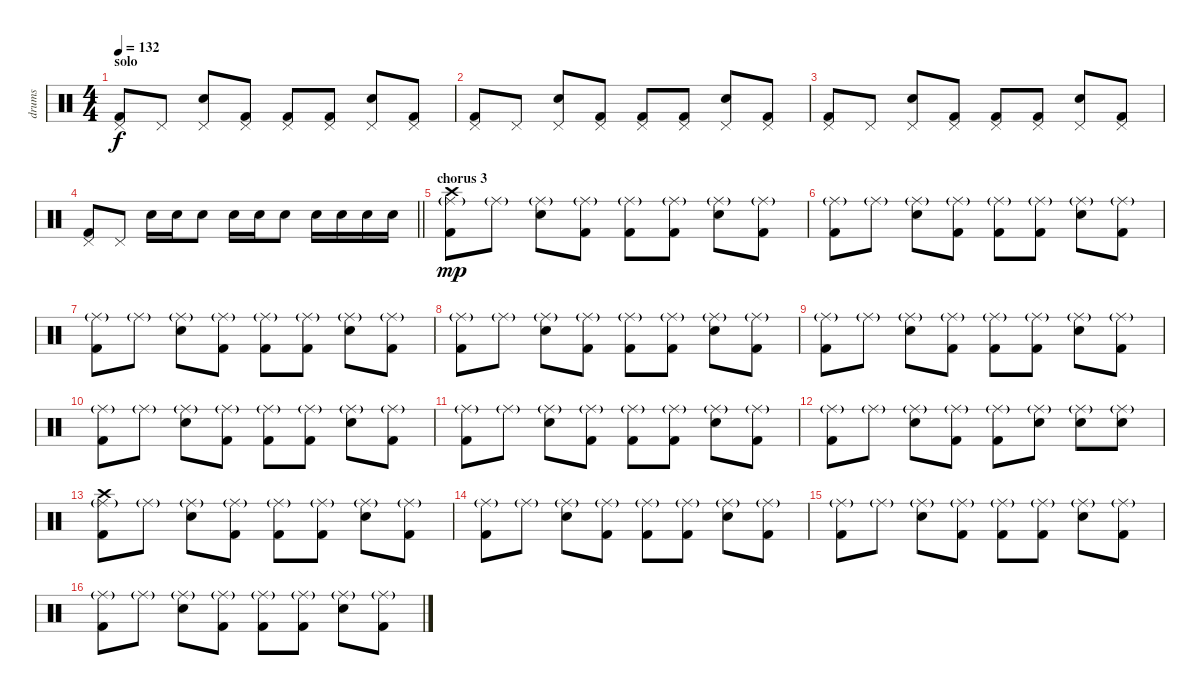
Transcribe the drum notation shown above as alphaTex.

\track ("drums" "drums") {instrument percussion}
\staff {score}
\articulation defaults
\ts (4 4)
\section ("" "solo")
\tempo 132
\clef neutral
\ks c
("Kick (hit) 2" "Pedal Hi-Hat (hit)").8{dy f} "Pedal Hi-Hat (hit)".8 ("Electric Snare (hit)" "Pedal Hi-Hat (hit)").8 ("Kick (hit) 2" "Pedal Hi-Hat (hit)").8 ("Kick (hit) 2" "Pedal Hi-Hat (hit)").8 ("Kick (hit) 2" "Pedal Hi-Hat (hit)").8 ("Electric Snare (hit)" "Pedal Hi-Hat (hit)").8 ("Kick (hit) 2" "Pedal Hi-Hat (hit)").8 |
("Kick (hit) 2" "Pedal Hi-Hat (hit)").8 "Pedal Hi-Hat (hit)".8 ("Electric Snare (hit)" "Pedal Hi-Hat (hit)").8 ("Kick (hit) 2" "Pedal Hi-Hat (hit)").8 ("Kick (hit) 2" "Pedal Hi-Hat (hit)").8 ("Kick (hit) 2" "Pedal Hi-Hat (hit)").8 ("Electric Snare (hit)" "Pedal Hi-Hat (hit)").8 ("Kick (hit) 2" "Pedal Hi-Hat (hit)").8 |
("Kick (hit) 2" "Pedal Hi-Hat (hit)").8 "Pedal Hi-Hat (hit)".8 ("Electric Snare (hit)" "Pedal Hi-Hat (hit)").8 ("Kick (hit) 2" "Pedal Hi-Hat (hit)").8 ("Kick (hit) 2" "Pedal Hi-Hat (hit)").8 ("Kick (hit) 2" "Pedal Hi-Hat (hit)").8 ("Electric Snare (hit)" "Pedal Hi-Hat (hit)").8 ("Kick (hit) 2" "Pedal Hi-Hat (hit)").8 |
\barLineRight lightlight
("Kick (hit) 2" "Pedal Hi-Hat (hit)").8 "Pedal Hi-Hat (hit)".8 "Electric Snare (hit)".16 "Electric Snare (hit)".16 "Electric Snare (hit)".8 "Electric Snare (hit)".16 "Electric Snare (hit)".16 "Electric Snare (hit)".8 "Electric Snare (hit)".16 "Electric Snare (hit)".16 "Electric Snare (hit)".16 "Electric Snare (hit)".16 |
\section ("" "chorus 3")
("Kick (hit) 2" "Ride (middle)"{g} "Crash high (hit)").8{dy mp} "Ride (middle)"{g}.8 ("Electric Snare (hit)" "Ride (middle)"{g}).8 ("Kick (hit) 2" "Ride (middle)"{g}).8 ("Kick (hit) 2" "Ride (middle)"{g}).8 ("Kick (hit) 2" "Ride (middle)"{g}).8 ("Electric Snare (hit)" "Ride (middle)"{g}).8 ("Kick (hit) 2" "Ride (middle)"{g}).8 |
("Kick (hit) 2" "Ride (middle)"{g}).8 "Ride (middle)"{g}.8 ("Electric Snare (hit)" "Ride (middle)"{g}).8 ("Kick (hit) 2" "Ride (middle)"{g}).8 ("Kick (hit) 2" "Ride (middle)"{g}).8 ("Kick (hit) 2" "Ride (middle)"{g}).8 ("Electric Snare (hit)" "Ride (middle)"{g}).8 ("Kick (hit) 2" "Ride (middle)"{g}).8 |
("Kick (hit) 2" "Ride (middle)"{g}).8 "Ride (middle)"{g}.8 ("Electric Snare (hit)" "Ride (middle)"{g}).8 ("Kick (hit) 2" "Ride (middle)"{g}).8 ("Kick (hit) 2" "Ride (middle)"{g}).8 ("Kick (hit) 2" "Ride (middle)"{g}).8 ("Electric Snare (hit)" "Ride (middle)"{g}).8 ("Kick (hit) 2" "Ride (middle)"{g}).8 |
("Kick (hit) 2" "Ride (middle)"{g}).8 "Ride (middle)"{g}.8 ("Electric Snare (hit)" "Ride (middle)"{g}).8 ("Kick (hit) 2" "Ride (middle)"{g}).8 ("Kick (hit) 2" "Ride (middle)"{g}).8 ("Kick (hit) 2" "Ride (middle)"{g}).8 ("Electric Snare (hit)" "Ride (middle)"{g}).8 ("Kick (hit) 2" "Ride (middle)"{g}).8 |
("Kick (hit) 2" "Ride (middle)"{g}).8 "Ride (middle)"{g}.8 ("Electric Snare (hit)" "Ride (middle)"{g}).8 ("Kick (hit) 2" "Ride (middle)"{g}).8 ("Kick (hit) 2" "Ride (middle)"{g}).8 ("Kick (hit) 2" "Ride (middle)"{g}).8 ("Electric Snare (hit)" "Ride (middle)"{g}).8 ("Kick (hit) 2" "Ride (middle)"{g}).8 |
("Kick (hit) 2" "Ride (middle)"{g}).8 "Ride (middle)"{g}.8 ("Electric Snare (hit)" "Ride (middle)"{g}).8 ("Kick (hit) 2" "Ride (middle)"{g}).8 ("Kick (hit) 2" "Ride (middle)"{g}).8 ("Kick (hit) 2" "Ride (middle)"{g}).8 ("Electric Snare (hit)" "Ride (middle)"{g}).8 ("Kick (hit) 2" "Ride (middle)"{g}).8 |
("Kick (hit) 2" "Ride (middle)"{g}).8 "Ride (middle)"{g}.8 ("Electric Snare (hit)" "Ride (middle)"{g}).8 ("Kick (hit) 2" "Ride (middle)"{g}).8 ("Kick (hit) 2" "Ride (middle)"{g}).8 ("Kick (hit) 2" "Ride (middle)"{g}).8 ("Electric Snare (hit)" "Ride (middle)"{g}).8 ("Kick (hit) 2" "Ride (middle)"{g}).8 |
("Kick (hit) 2" "Ride (middle)"{g}).8 "Ride (middle)"{g}.8 ("Electric Snare (hit)" "Ride (middle)"{g}).8 ("Kick (hit) 2" "Ride (middle)"{g}).8 ("Kick (hit) 2" "Ride (middle)"{g}).8 ("Electric Snare (hit)" "Ride (middle)"{g}).8 ("Electric Snare (hit)" "Ride (middle)"{g}).8 ("Electric Snare (hit)" "Ride (middle)"{g}).8 |
("Kick (hit) 2" "Ride (middle)"{g} "Crash high (hit)").8 "Ride (middle)"{g}.8 ("Electric Snare (hit)" "Ride (middle)"{g}).8 ("Kick (hit) 2" "Ride (middle)"{g}).8 ("Kick (hit) 2" "Ride (middle)"{g}).8 ("Kick (hit) 2" "Ride (middle)"{g}).8 ("Electric Snare (hit)" "Ride (middle)"{g}).8 ("Kick (hit) 2" "Ride (middle)"{g}).8 |
("Kick (hit) 2" "Ride (middle)"{g}).8 "Ride (middle)"{g}.8 ("Electric Snare (hit)" "Ride (middle)"{g}).8 ("Kick (hit) 2" "Ride (middle)"{g}).8 ("Kick (hit) 2" "Ride (middle)"{g}).8 ("Kick (hit) 2" "Ride (middle)"{g}).8 ("Electric Snare (hit)" "Ride (middle)"{g}).8 ("Kick (hit) 2" "Ride (middle)"{g}).8 |
("Kick (hit) 2" "Ride (middle)"{g}).8 "Ride (middle)"{g}.8 ("Electric Snare (hit)" "Ride (middle)"{g}).8 ("Kick (hit) 2" "Ride (middle)"{g}).8 ("Kick (hit) 2" "Ride (middle)"{g}).8 ("Kick (hit) 2" "Ride (middle)"{g}).8 ("Electric Snare (hit)" "Ride (middle)"{g}).8 ("Kick (hit) 2" "Ride (middle)"{g}).8 |
("Kick (hit) 2" "Ride (middle)"{g}).8 "Ride (middle)"{g}.8 ("Electric Snare (hit)" "Ride (middle)"{g}).8 ("Kick (hit) 2" "Ride (middle)"{g}).8 ("Kick (hit) 2" "Ride (middle)"{g}).8 ("Kick (hit) 2" "Ride (middle)"{g}).8 ("Electric Snare (hit)" "Ride (middle)"{g}).8 ("Kick (hit) 2" "Ride (middle)"{g}).8
